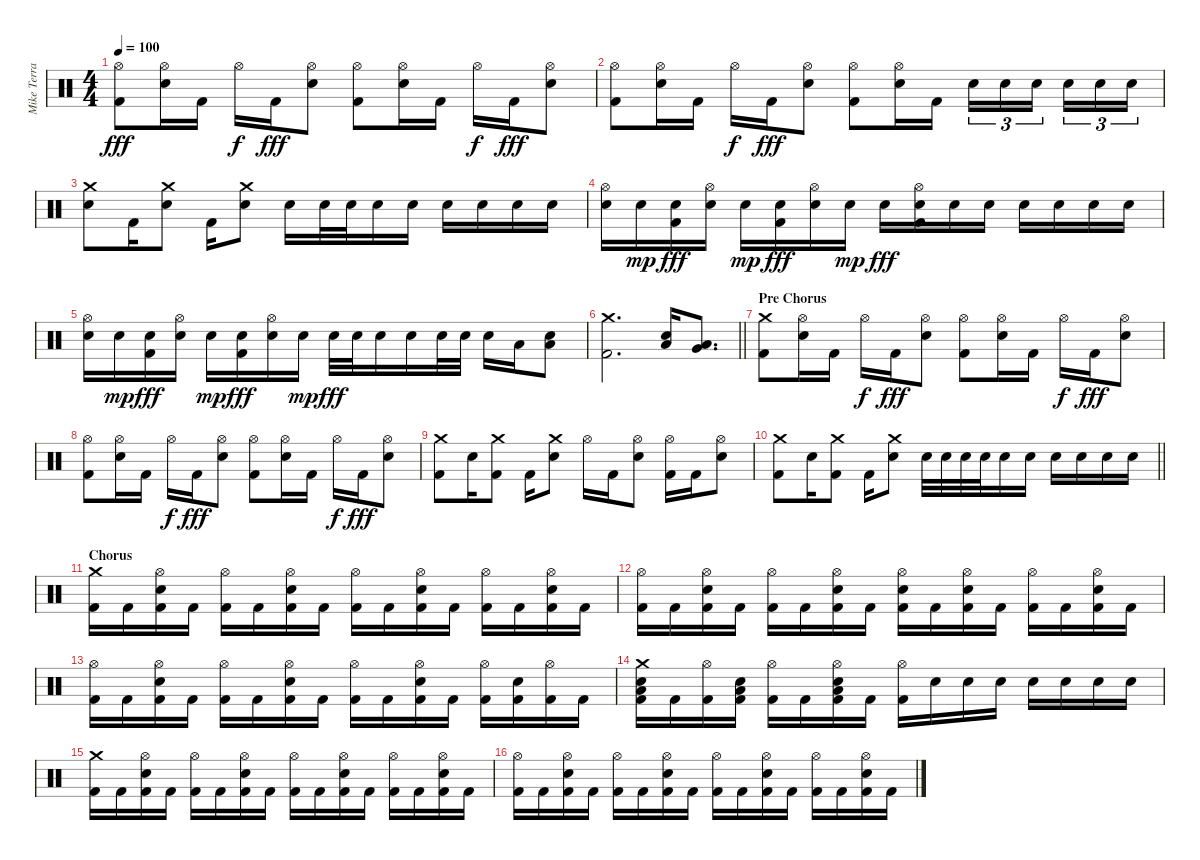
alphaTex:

\track ("Mike Terrana" "Mike Terra") {instrument percussion}
\staff {score}
\articulation defaults
\ts (4 4)
\tempo 100
\clef neutral
\ks c
("Hi-Hat (open)" "Kick (hit) 2").8{dy fff} ("Hi-Hat (open)" "Snare (hit) 2").16 "Kick (hit) 2".16 "Hi-Hat (open)".16{dy f} "Kick (hit) 2".16{dy fff} ("Hi-Hat (open)" "Snare (hit) 2").8 ("Hi-Hat (open)" "Kick (hit) 2").8 ("Hi-Hat (open)" "Snare (hit) 2").16 "Kick (hit) 2".16 "Hi-Hat (open)".16{dy f} "Kick (hit) 2".16{dy fff} ("Hi-Hat (open)" "Snare (hit) 2").8 |
("Hi-Hat (open)" "Kick (hit) 2").8 ("Hi-Hat (open)" "Snare (hit) 2").16 "Kick (hit) 2".16 "Hi-Hat (open)".16{dy f} "Kick (hit) 2".16{dy fff} ("Hi-Hat (open)" "Snare (hit) 2").8 ("Hi-Hat (open)" "Kick (hit) 2").8 ("Hi-Hat (open)" "Snare (hit) 2").16 "Kick (hit) 2".16 "Snare (hit) 2".16{tu (3 2)} "Snare (hit) 2".16{tu (3 2)} "Snare (hit) 2".16{tu (3 2) beam splitsecondary} "Snare (hit) 2".16{tu (3 2)} "Snare (hit) 2".16{tu (3 2)} "Snare (hit) 2".16{tu (3 2)} |
("Crash medium (hit)" "Snare (hit) 2").8 "Kick (hit) 2".16 ("Crash medium (hit)" "Snare (hit) 2").8 "Kick (hit) 2".16 ("Crash medium (hit)" "Snare (hit) 2").8 "Snare (hit) 2".16 "Snare (hit) 2".32 "Snare (hit) 2".32 "Snare (hit) 2".16 "Snare (hit) 2".16 "Snare (hit) 2".16 "Snare (hit) 2".16 "Snare (hit) 2".16 "Snare (hit) 2".16 |
("Hi-Hat (open)" "Snare (hit) 2").16 "Snare (hit) 2".16{dy mp} ("Snare (hit) 2" "Kick (hit) 2").16{dy fff} ("Hi-Hat (open)" "Snare (hit) 2").16 "Snare (hit) 2".16{dy mp} ("Snare (hit) 2" "Kick (hit) 2").16{dy fff} ("Hi-Hat (open)" "Snare (hit) 2").16 "Snare (hit) 2".16{dy mp} "Snare (hit) 2".16{dy fff} ("Hi-Hat (open)" "Snare (hit) 2" "Kick (hit) 2").16 "Snare (hit) 2".16 "Snare (hit) 2".16 "Snare (hit) 2".16 "Snare (hit) 2".16 "Snare (hit) 2".16 "Snare (hit) 2".16 |
("Hi-Hat (open)" "Snare (hit) 2").16 "Snare (hit) 2".16{dy mp} ("Snare (hit) 2" "Kick (hit) 2").16{dy fff} ("Hi-Hat (open)" "Snare (hit) 2").16 "Snare (hit) 2".16{dy mp} ("Snare (hit) 2" "Kick (hit) 2").16{dy fff} ("Hi-Hat (open)" "Snare (hit) 2").16 "Snare (hit) 2".16{dy mp} "Snare (hit) 2".32{dy fff} "Snare (hit) 2".32 "Snare (hit) 2".16 "Snare (hit) 2".16 "Snare (hit) 2".32 "Snare (hit) 2".32 "Snare (hit) 2".16 "Low Tom (hit)".16 ("Snare (hit) 2" "Low Tom (hit)").8 |
\barLineRight lightlight
("Crash medium (hit)" "Kick (hit) 2").2{d} ("Snare (hit) 2" "Low Tom (hit)").16 ("Low Tom (hit)" "Very Low Tom (hit)").8{d} |
\section ("" "Pre Chorus")
("Crash medium (hit)" "Kick (hit) 2").8 ("Hi-Hat (open)" "Snare (hit) 2").16 "Kick (hit) 2".16 "Hi-Hat (open)".16{dy f} "Kick (hit) 2".16{dy fff} ("Hi-Hat (open)" "Snare (hit) 2").8 ("Hi-Hat (open)" "Kick (hit) 2").8 ("Hi-Hat (open)" "Snare (hit) 2").16 "Kick (hit) 2".16 "Hi-Hat (open)".16{dy f} "Kick (hit) 2".16{dy fff} ("Hi-Hat (open)" "Snare (hit) 2").8 |
("Hi-Hat (open)" "Kick (hit) 2").8 ("Hi-Hat (open)" "Snare (hit) 2").16 "Kick (hit) 2".16 "Hi-Hat (open)".16{dy f} "Kick (hit) 2".16{dy fff} ("Hi-Hat (open)" "Snare (hit) 2").8 ("Hi-Hat (open)" "Kick (hit) 2").8 ("Hi-Hat (open)" "Snare (hit) 2").16 "Kick (hit) 2".16 "Hi-Hat (open)".16{dy f} "Kick (hit) 2".16{dy fff} ("Hi-Hat (open)" "Snare (hit) 2").8 |
("Crash medium (hit)" "Kick (hit) 2").8 "Snare (hit) 2".16 ("Crash medium (hit)" "Kick (hit) 2").8 "Kick (hit) 2".16 ("Crash medium (hit)" "Snare (hit) 2").8 "Hi-Hat (open)".16 "Kick (hit) 2".16 ("Hi-Hat (open)" "Snare (hit) 2").8 ("Hi-Hat (open)" "Kick (hit) 2").16 "Kick (hit) 2".16 ("Hi-Hat (open)" "Snare (hit) 2").8 |
\barLineRight lightlight
("Crash medium (hit)" "Kick (hit) 2").8 "Snare (hit) 2".16 ("Crash medium (hit)" "Kick (hit) 2").8 "Kick (hit) 2".16 ("Crash medium (hit)" "Snare (hit) 2").8 "Snare (hit) 2".32 "Snare (hit) 2".32 "Snare (hit) 2".32 "Snare (hit) 2".32 "Snare (hit) 2".16 "Snare (hit) 2".16 "Snare (hit) 2".16 "Snare (hit) 2".16 "Snare (hit) 2".16 "Snare (hit) 2".16 |
\section ("" "Chorus")
("Crash medium (hit)" "Kick (hit) 2").16 "Kick (hit) 2".16 ("Hi-Hat (open)" "Snare (hit) 2" "Kick (hit) 2").16 "Kick (hit) 2".16 ("Hi-Hat (open)" "Kick (hit) 2").16 "Kick (hit) 2".16 ("Hi-Hat (open)" "Snare (hit) 2" "Kick (hit) 2").16 "Kick (hit) 2".16 ("Hi-Hat (open)" "Kick (hit) 2").16 "Kick (hit) 2".16 ("Hi-Hat (open)" "Snare (hit) 2" "Kick (hit) 2").16 "Kick (hit) 2".16 ("Hi-Hat (open)" "Kick (hit) 2").16 "Kick (hit) 2".16 ("Hi-Hat (open)" "Snare (hit) 2" "Kick (hit) 2").16 "Kick (hit) 2".16 |
("Hi-Hat (open)" "Kick (hit) 2").16 "Kick (hit) 2".16 ("Hi-Hat (open)" "Snare (hit) 2" "Kick (hit) 2").16 "Kick (hit) 2".16 ("Hi-Hat (open)" "Kick (hit) 2").16 "Kick (hit) 2".16 ("Hi-Hat (open)" "Snare (hit) 2" "Kick (hit) 2").16 "Kick (hit) 2".16 ("Hi-Hat (open)" "Snare (hit) 2" "Kick (hit) 2").16 "Kick (hit) 2".16 ("Hi-Hat (open)" "Snare (hit) 2" "Kick (hit) 2").16 "Kick (hit) 2".16 ("Hi-Hat (open)" "Kick (hit) 2").16 "Kick (hit) 2".16 ("Hi-Hat (open)" "Snare (hit) 2" "Kick (hit) 2").16 "Kick (hit) 2".16 |
("Hi-Hat (open)" "Kick (hit) 2").16 "Kick (hit) 2".16 ("Hi-Hat (open)" "Snare (hit) 2" "Kick (hit) 2").16 "Kick (hit) 2".16 ("Hi-Hat (open)" "Kick (hit) 2").16 "Kick (hit) 2".16 ("Hi-Hat (open)" "Snare (hit) 2" "Kick (hit) 2").16 "Kick (hit) 2".16 ("Hi-Hat (open)" "Kick (hit) 2").16 "Kick (hit) 2".16 ("Hi-Hat (open)" "Snare (hit) 2" "Kick (hit) 2").16 "Kick (hit) 2".16 ("Hi-Hat (open)" "Kick (hit) 2").16 ("Snare (hit) 2" "Kick (hit) 2").16 ("Hi-Hat (open)" "Kick (hit) 2").16 "Kick (hit) 2".16 |
("Crash medium (hit)" "Low Tom (hit)" "Snare (hit) 2" "Kick (hit) 2").16 "Kick (hit) 2".16 ("Hi-Hat (open)" "Kick (hit) 2").16 ("Low Tom (hit)" "Snare (hit) 2" "Kick (hit) 2").16 ("Hi-Hat (open)" "Kick (hit) 2").16 "Kick (hit) 2".16 ("Hi-Hat (open)" "Low Tom (hit)" "Snare (hit) 2" "Kick (hit) 2").16 "Kick (hit) 2".16 ("Hi-Hat (open)" "Kick (hit) 2").16 "Snare (hit) 2".16 "Snare (hit) 2".16 "Snare (hit) 2".16 "Snare (hit) 2".16 "Snare (hit) 2".16 "Snare (hit) 2".16 "Snare (hit) 2".16 |
("Crash medium (hit)" "Kick (hit) 2").16 "Kick (hit) 2".16 ("Hi-Hat (open)" "Snare (hit) 2" "Kick (hit) 2").16 "Kick (hit) 2".16 ("Hi-Hat (open)" "Kick (hit) 2").16 "Kick (hit) 2".16 ("Hi-Hat (open)" "Snare (hit) 2" "Kick (hit) 2").16 "Kick (hit) 2".16 ("Hi-Hat (open)" "Kick (hit) 2").16 "Kick (hit) 2".16 ("Hi-Hat (open)" "Snare (hit) 2" "Kick (hit) 2").16 "Kick (hit) 2".16 ("Hi-Hat (open)" "Kick (hit) 2").16 "Kick (hit) 2".16 ("Hi-Hat (open)" "Snare (hit) 2" "Kick (hit) 2").16 "Kick (hit) 2".16 |
("Hi-Hat (open)" "Kick (hit) 2").16 "Kick (hit) 2".16 ("Hi-Hat (open)" "Snare (hit) 2" "Kick (hit) 2").16 "Kick (hit) 2".16 ("Hi-Hat (open)" "Kick (hit) 2").16 "Kick (hit) 2".16 ("Hi-Hat (open)" "Snare (hit) 2" "Kick (hit) 2").16 "Kick (hit) 2".16 ("Hi-Hat (open)" "Kick (hit) 2").16 "Kick (hit) 2".16 ("Hi-Hat (open)" "Snare (hit) 2" "Kick (hit) 2").16 "Kick (hit) 2".16 ("Hi-Hat (open)" "Kick (hit) 2").16 "Kick (hit) 2".16 ("Hi-Hat (open)" "Snare (hit) 2" "Kick (hit) 2").16 "Kick (hit) 2".16
